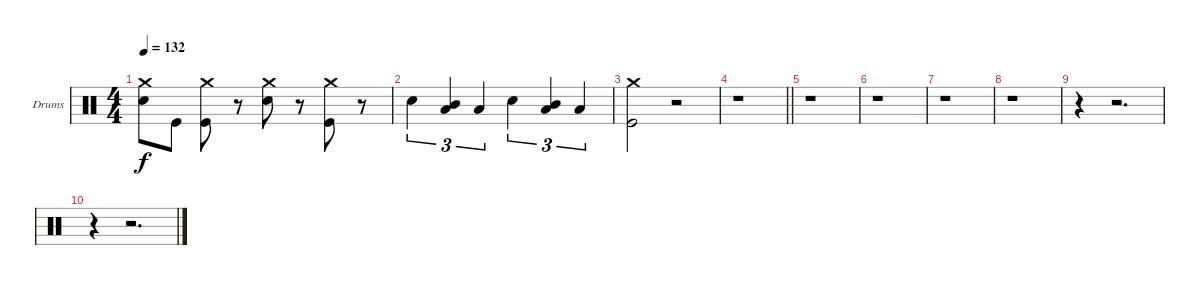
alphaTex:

\bracketExtendMode groupsimilarinstruments
\firstSystemTrackNameOrientation horizontal
\otherSystemsTrackNameOrientation horizontal
\track ("Drumkit" "Drums") {instrument percussion}
\staff {score}
\articulation defaults
\ts (4 4)
\tempo 132
\clef neutral
\ks c
("Snare (hit) 2" "Crash medium (hit)").8{dy f} "Kick (hit)".8 ("Kick (hit)" "Crash medium (hit)").8 r.8 ("Snare (hit) 2" "Crash medium (hit)").8 r.8 ("Kick (hit)" "Crash medium (hit)").8 r.8 |
"Snare (hit) 2".4{tu (3 2)} ("Low Tom (hit)" "Mid Tom (hit)").4{tu (3 2)} "Low Tom (hit)".4{tu (3 2)} "Snare (hit) 2".4{tu (3 2)} ("Low Tom (hit)" "Mid Tom (hit)").4{tu (3 2)} "Low Tom (hit)".4{tu (3 2)} |
("Kick (hit)" "Crash medium (hit)").2 r.2 |
\barLineRight lightlight
r.1 |
r.1 |
r.1 |
r.1 |
r.1 |
r.4 r.2{d} |
r.4 r.2{d}
